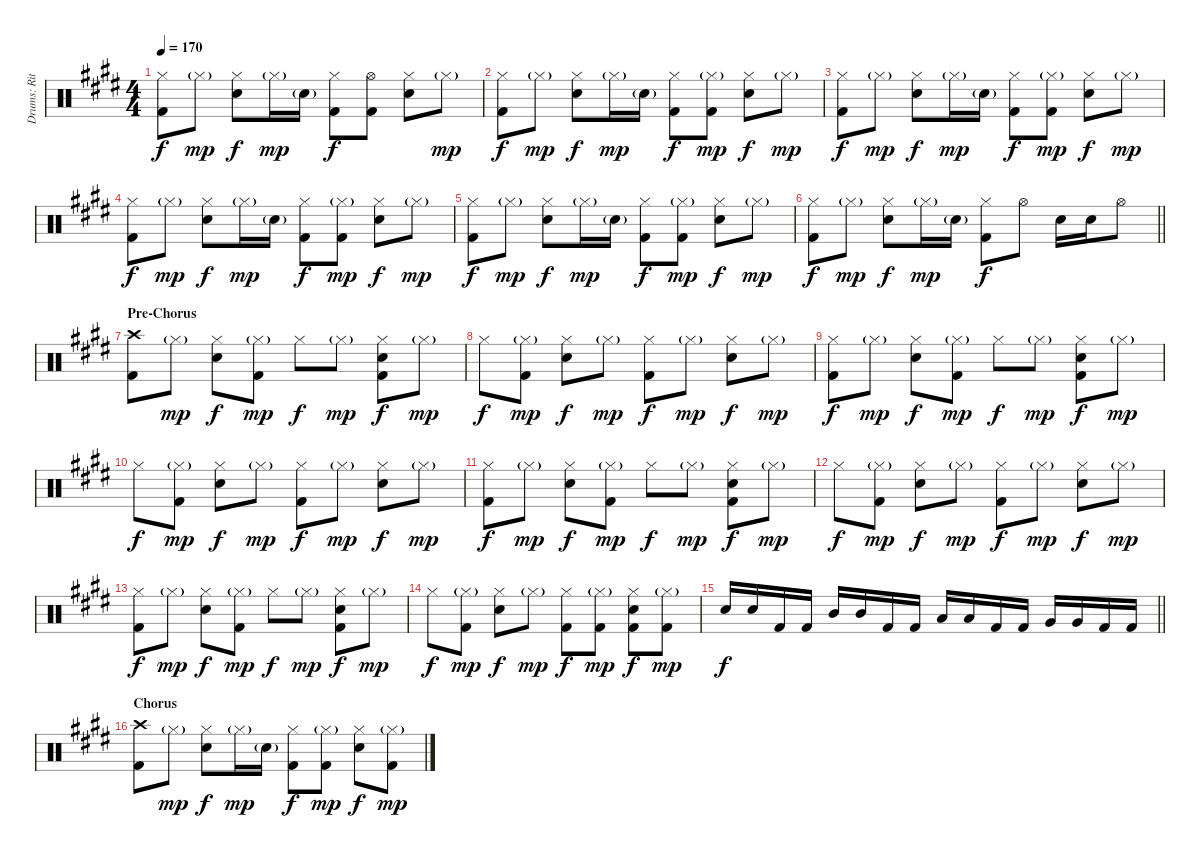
\track ("Drums: Ritsu Tainaka" "Drums: Rit") {instrument percussion}
\staff {score}
\articulation defaults
\ts (4 4)
\tempo 170
\clef neutral
\ks e
("Hi-Hat (closed)" "Kick (hit) 2").8{dy f} "Hi-Hat (closed)"{g}.8{dy mp} ("Hi-Hat (closed)" "Electric Snare (hit)").8{dy f} "Hi-Hat (closed)"{g}.16{dy mp} "Electric Snare (hit)"{g}.16 ("Hi-Hat (closed)" "Kick (hit) 2").8{dy f} ("Hi-Hat (open)" "Kick (hit) 2").8 ("Hi-Hat (closed)" "Electric Snare (hit)").8 "Hi-Hat (closed)"{g}.8{dy mp} |
("Hi-Hat (closed)" "Kick (hit) 2").8{dy f} "Hi-Hat (closed)"{g}.8{dy mp} ("Hi-Hat (closed)" "Electric Snare (hit)").8{dy f} "Hi-Hat (closed)"{g}.16{dy mp} "Electric Snare (hit)"{g}.16 ("Hi-Hat (closed)" "Kick (hit) 2").8{dy f} ("Hi-Hat (closed)"{g} "Kick (hit) 2").8{dy mp} ("Hi-Hat (closed)" "Electric Snare (hit)").8{dy f} "Hi-Hat (closed)"{g}.8{dy mp} |
("Hi-Hat (closed)" "Kick (hit) 2").8{dy f} "Hi-Hat (closed)"{g}.8{dy mp} ("Hi-Hat (closed)" "Electric Snare (hit)").8{dy f} "Hi-Hat (closed)"{g}.16{dy mp} "Electric Snare (hit)"{g}.16 ("Hi-Hat (closed)" "Kick (hit) 2").8{dy f} ("Hi-Hat (closed)"{g} "Kick (hit) 2").8{dy mp} ("Hi-Hat (closed)" "Electric Snare (hit)").8{dy f} "Hi-Hat (closed)"{g}.8{dy mp} |
("Hi-Hat (closed)" "Kick (hit) 2").8{dy f} "Hi-Hat (closed)"{g}.8{dy mp} ("Hi-Hat (closed)" "Electric Snare (hit)").8{dy f} "Hi-Hat (closed)"{g}.16{dy mp} "Electric Snare (hit)"{g}.16 ("Hi-Hat (closed)" "Kick (hit) 2").8{dy f} ("Hi-Hat (closed)"{g} "Kick (hit) 2").8{dy mp} ("Hi-Hat (closed)" "Electric Snare (hit)").8{dy f} "Hi-Hat (closed)"{g}.8{dy mp} |
("Hi-Hat (closed)" "Kick (hit) 2").8{dy f} "Hi-Hat (closed)"{g}.8{dy mp} ("Hi-Hat (closed)" "Electric Snare (hit)").8{dy f} "Hi-Hat (closed)"{g}.16{dy mp} "Electric Snare (hit)"{g}.16 ("Hi-Hat (closed)" "Kick (hit) 2").8{dy f} ("Hi-Hat (closed)"{g} "Kick (hit) 2").8{dy mp} ("Hi-Hat (closed)" "Electric Snare (hit)").8{dy f} "Hi-Hat (closed)"{g}.8{dy mp} |
\barLineRight lightlight
("Hi-Hat (closed)" "Kick (hit) 2").8{dy f} "Hi-Hat (closed)"{g}.8{dy mp} ("Hi-Hat (closed)" "Electric Snare (hit)").8{dy f} "Hi-Hat (closed)"{g}.16{dy mp} "Electric Snare (hit)"{g}.16 ("Hi-Hat (closed)" "Kick (hit) 2").8{dy f} "Hi-Hat (open)".8 "Electric Snare (hit)".16 "Electric Snare (hit)".16 "Hi-Hat (open)".8 |
\section ("" "Pre-Chorus")
("Crash high (hit)" "Kick (hit) 2").8 "Hi-Hat (closed)"{g}.8{dy mp} ("Hi-Hat (closed)" "Electric Snare (hit)").8{dy f} ("Hi-Hat (closed)"{g} "Kick (hit) 2").8{dy mp} "Hi-Hat (closed)".8{dy f} "Hi-Hat (closed)"{g}.8{dy mp} ("Hi-Hat (closed)" "Electric Snare (hit)" "Kick (hit) 2").8{dy f} "Hi-Hat (closed)"{g}.8{dy mp} |
"Hi-Hat (closed)".8{dy f} ("Hi-Hat (closed)"{g} "Kick (hit) 2").8{dy mp} ("Hi-Hat (closed)" "Electric Snare (hit)").8{dy f} "Hi-Hat (closed)"{g}.8{dy mp} ("Hi-Hat (closed)" "Kick (hit) 2").8{dy f} "Hi-Hat (closed)"{g}.8{dy mp} ("Hi-Hat (closed)" "Electric Snare (hit)").8{dy f} "Hi-Hat (closed)"{g}.8{dy mp} |
("Hi-Hat (closed)" "Kick (hit) 2").8{dy f} "Hi-Hat (closed)"{g}.8{dy mp} ("Hi-Hat (closed)" "Electric Snare (hit)").8{dy f} ("Hi-Hat (closed)"{g} "Kick (hit) 2").8{dy mp} "Hi-Hat (closed)".8{dy f} "Hi-Hat (closed)"{g}.8{dy mp} ("Hi-Hat (closed)" "Electric Snare (hit)" "Kick (hit) 2").8{dy f} "Hi-Hat (closed)"{g}.8{dy mp} |
"Hi-Hat (closed)".8{dy f} ("Hi-Hat (closed)"{g} "Kick (hit) 2").8{dy mp} ("Hi-Hat (closed)" "Electric Snare (hit)").8{dy f} "Hi-Hat (closed)"{g}.8{dy mp} ("Hi-Hat (closed)" "Kick (hit) 2").8{dy f} "Hi-Hat (closed)"{g}.8{dy mp} ("Hi-Hat (closed)" "Electric Snare (hit)").8{dy f} "Hi-Hat (closed)"{g}.8{dy mp} |
("Hi-Hat (closed)" "Kick (hit) 2").8{dy f} "Hi-Hat (closed)"{g}.8{dy mp} ("Hi-Hat (closed)" "Electric Snare (hit)").8{dy f} ("Hi-Hat (closed)"{g} "Kick (hit) 2").8{dy mp} "Hi-Hat (closed)".8{dy f} "Hi-Hat (closed)"{g}.8{dy mp} ("Hi-Hat (closed)" "Electric Snare (hit)" "Kick (hit) 2").8{dy f} "Hi-Hat (closed)"{g}.8{dy mp} |
"Hi-Hat (closed)".8{dy f} ("Hi-Hat (closed)"{g} "Kick (hit) 2").8{dy mp} ("Hi-Hat (closed)" "Electric Snare (hit)").8{dy f} "Hi-Hat (closed)"{g}.8{dy mp} ("Hi-Hat (closed)" "Kick (hit) 2").8{dy f} "Hi-Hat (closed)"{g}.8{dy mp} ("Hi-Hat (closed)" "Electric Snare (hit)").8{dy f} "Hi-Hat (closed)"{g}.8{dy mp} |
("Hi-Hat (closed)" "Kick (hit) 2").8{dy f} "Hi-Hat (closed)"{g}.8{dy mp} ("Hi-Hat (closed)" "Electric Snare (hit)").8{dy f} ("Hi-Hat (closed)"{g} "Kick (hit) 2").8{dy mp} "Hi-Hat (closed)".8{dy f} "Hi-Hat (closed)"{g}.8{dy mp} ("Hi-Hat (closed)" "Electric Snare (hit)" "Kick (hit) 2").8{dy f} "Hi-Hat (closed)"{g}.8{dy mp} |
"Hi-Hat (closed)".8{dy f} ("Hi-Hat (closed)"{g} "Kick (hit) 2").8{dy mp} ("Hi-Hat (closed)" "Electric Snare (hit)").8{dy f} "Hi-Hat (closed)"{g}.8{dy mp} ("Hi-Hat (closed)" "Kick (hit) 2").8{dy f} ("Hi-Hat (closed)"{g} "Kick (hit) 2").8{dy mp} ("Hi-Hat (closed)" "Electric Snare (hit)" "Kick (hit) 2").8{dy f} ("Hi-Hat (closed)"{g} "Kick (hit) 2").8{dy mp} |
\barLineRight lightlight "Electric Snare (hit)".16{dy f} "Electric Snare (hit)".16 "Kick (hit) 2".16 "Kick (hit) 2".16 "Mid Tom (hit)".16 "Mid Tom (hit)".16 "Kick (hit) 2".16 "Kick (hit) 2".16 "Low Tom (hit)".16 "Low Tom (hit)".16 "Kick (hit) 2".16 "Kick (hit) 2".16 "Very Low Tom (hit)".16 "Very Low Tom (hit)".16 "Kick (hit) 2".16 "Kick (hit) 2".16
|
\section ("" "Chorus")
("Crash high (hit)" "Kick (hit) 2").8 "Hi-Hat (closed)"{g}.8{dy mp} ("Hi-Hat (closed)" "Electric Snare (hit)").8{dy f} "Hi-Hat (closed)"{g}.16{dy mp} "Electric Snare (hit)"{g}.16 ("Hi-Hat (closed)" "Kick (hit) 2").8{dy f} ("Hi-Hat (closed)"{g} "Kick (hit) 2").8{dy mp} ("Hi-Hat (closed)" "Electric Snare (hit)").8{dy f} ("Hi-Hat (closed)"{g} "Kick (hit) 2").8{dy mp}
